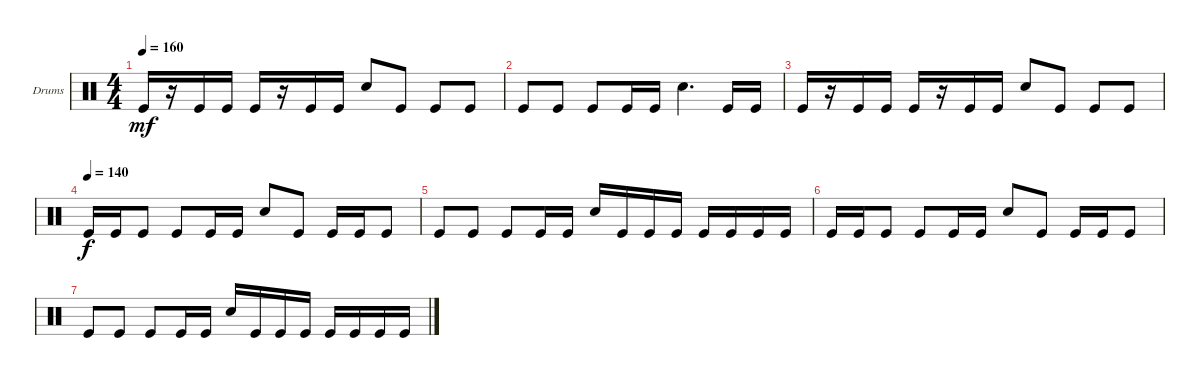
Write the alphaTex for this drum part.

\defaultSystemsLayout 4
\bracketExtendMode groupsimilarinstruments
\firstSystemTrackNameOrientation horizontal
\otherSystemsTrackNameOrientation horizontal
\track ("Drumkit" "Drums") {instrument percussion}
\staff {score}
\articulation defaults
\ts (4 4)
\tempo 160
\clef neutral
\ks c "Kick (hit)".16{dy mf}
r.16 "Kick (hit)".16 "Kick (hit)".16 "Kick (hit)".16 r.16 "Kick (hit)".16 "Kick (hit)".16 "Snare (hit) 2".8 "Kick (hit)".8 "Kick (hit)".8 "Kick (hit)".8 |
"Kick (hit)".8 "Kick (hit)".8 "Kick (hit)".8 "Kick (hit)".16 "Kick (hit)".16 "Snare (hit) 2".4{d} "Kick (hit)".16 "Kick (hit)".16 |
"Kick (hit)".16 r.16 "Kick (hit)".16 "Kick (hit)".16 "Kick (hit)".16 r.16 "Kick (hit)".16 "Kick (hit)".16 "Snare (hit) 2".8 "Kick (hit)".8 "Kick (hit)".8 "Kick (hit)".8 |
\tempo (140)
"Kick (hit)".16{dy f} "Kick (hit)".16 "Kick (hit)".8 "Kick (hit)".8 "Kick (hit)".16 "Kick (hit)".16 "Snare (hit) 2".8 "Kick (hit)".8 "Kick (hit)".16 "Kick (hit)".16 "Kick (hit)".8 |
"Kick (hit)".8 "Kick (hit)".8 "Kick (hit)".8 "Kick (hit)".16 "Kick (hit)".16 "Snare (hit) 2".16 "Kick (hit)".16 "Kick (hit)".16 "Kick (hit)".16 "Kick (hit)".16 "Kick (hit)".16 "Kick (hit)".16 "Kick (hit)".16 |
"Kick (hit)".16 "Kick (hit)".16 "Kick (hit)".8 "Kick (hit)".8 "Kick (hit)".16 "Kick (hit)".16 "Snare (hit) 2".8 "Kick (hit)".8 "Kick (hit)".16 "Kick (hit)".16 "Kick (hit)".8 |
"Kick (hit)".8 "Kick (hit)".8 "Kick (hit)".8 "Kick (hit)".16 "Kick (hit)".16 "Snare (hit) 2".16 "Kick (hit)".16 "Kick (hit)".16 "Kick (hit)".16 "Kick (hit)".16 "Kick (hit)".16 "Kick (hit)".16 "Kick (hit)".16
